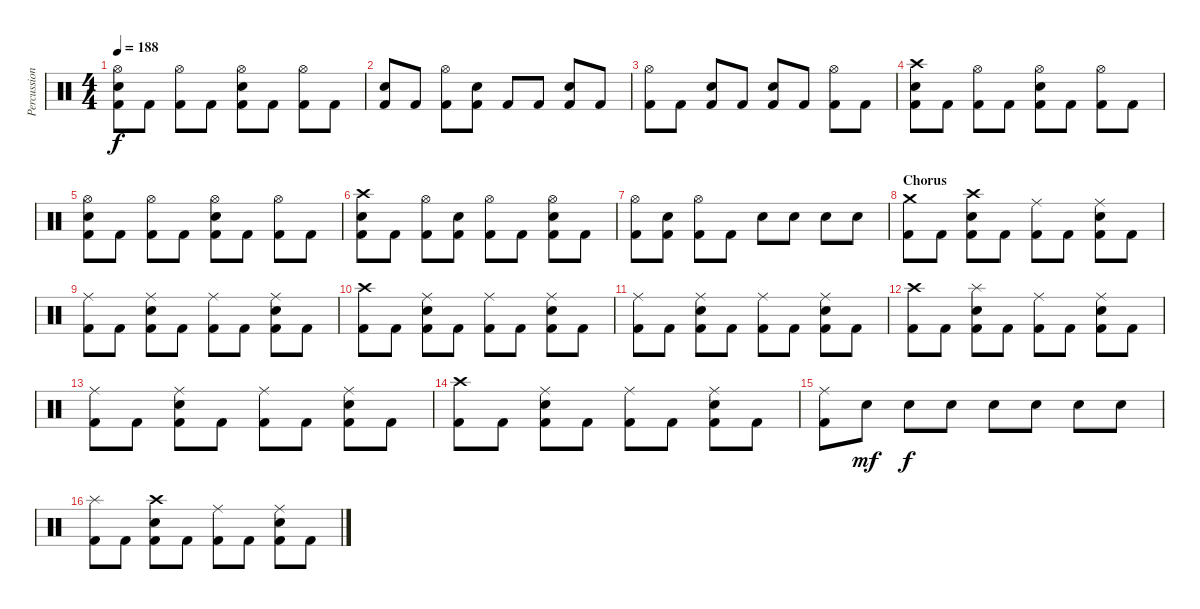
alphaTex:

\track ("Percussions" "Percussion") {instrument percussion}
\staff {score}
\articulation defaults
\ts (4 4)
\tempo 188
\clef neutral
\ks c
("Hi-Hat (open)" "Snare (hit) 2" "Kick (hit) 2").8{dy f} "Kick (hit) 2".8 ("Hi-Hat (open)" "Kick (hit) 2").8 "Kick (hit) 2".8 ("Hi-Hat (open)" "Snare (hit) 2" "Kick (hit) 2").8 "Kick (hit) 2".8 ("Hi-Hat (open)" "Kick (hit) 2").8 "Kick (hit) 2".8 |
("Snare (hit) 2" "Kick (hit) 2").8 "Kick (hit) 2".8 ("Hi-Hat (open)" "Kick (hit) 2").8 ("Snare (hit) 2" "Kick (hit) 2").8 "Kick (hit) 2".8 "Kick (hit) 2".8 ("Snare (hit) 2" "Kick (hit) 2").8 "Kick (hit) 2".8 |
("Hi-Hat (open)" "Kick (hit) 2").8 "Kick (hit) 2".8 ("Snare (hit) 2" "Kick (hit) 2").8 "Kick (hit) 2".8 ("Snare (hit) 2" "Kick (hit) 2").8 "Kick (hit) 2".8 ("Hi-Hat (open)" "Kick (hit) 2").8 "Kick (hit) 2".8 |
("Crash high (hit)" "Snare (hit) 2" "Kick (hit) 2").8 "Kick (hit) 2".8 ("Hi-Hat (open)" "Kick (hit) 2").8 "Kick (hit) 2".8 ("Hi-Hat (open)" "Snare (hit) 2" "Kick (hit) 2").8 "Kick (hit) 2".8 ("Hi-Hat (open)" "Kick (hit) 2").8 "Kick (hit) 2".8 |
("Hi-Hat (open)" "Snare (hit) 2" "Kick (hit) 2").8 "Kick (hit) 2".8 ("Hi-Hat (open)" "Kick (hit) 2").8 "Kick (hit) 2".8 ("Hi-Hat (open)" "Snare (hit) 2" "Kick (hit) 2").8 "Kick (hit) 2".8 ("Hi-Hat (open)" "Kick (hit) 2").8 "Kick (hit) 2".8 |
("Crash high (hit)" "Snare (hit) 2" "Kick (hit) 2").8 "Kick (hit) 2".8 ("Hi-Hat (open)" "Kick (hit) 2").8 ("Snare (hit) 2" "Kick (hit) 2").8 ("Hi-Hat (open)" "Kick (hit) 2").8 "Kick (hit) 2".8 ("Hi-Hat (open)" "Snare (hit) 2" "Kick (hit) 2").8 "Kick (hit) 2".8 |
("Hi-Hat (open)" "Kick (hit) 2").8 ("Snare (hit) 2" "Kick (hit) 2").8 ("Hi-Hat (open)" "Kick (hit) 2").8 "Kick (hit) 2".8 "Snare (hit) 2".8 "Snare (hit) 2".8 "Snare (hit) 2".8 "Snare (hit) 2".8 |
\section ("" "Chorus")
("Crash medium (hit)" "Kick (hit) 2").8 "Kick (hit) 2".8 ("Crash high (hit)" "Snare (hit) 2" "Kick (hit) 2").8 "Kick (hit) 2".8 ("Ride (middle)" "Kick (hit) 2").8 "Kick (hit) 2".8 ("Ride (middle)" "Snare (hit) 2" "Kick (hit) 2").8 "Kick (hit) 2".8 |
("Ride (middle)" "Kick (hit) 2").8 "Kick (hit) 2".8 ("Ride (middle)" "Snare (hit) 2" "Kick (hit) 2").8 "Kick (hit) 2".8 ("Ride (middle)" "Kick (hit) 2").8 "Kick (hit) 2".8 ("Ride (middle)" "Snare (hit) 2" "Kick (hit) 2").8 "Kick (hit) 2".8 |
("Crash high (hit)" "Kick (hit) 2").8 "Kick (hit) 2".8 ("Ride (middle)" "Snare (hit) 2" "Kick (hit) 2").8 "Kick (hit) 2".8 ("Ride (middle)" "Kick (hit) 2").8 "Kick (hit) 2".8 ("Ride (middle)" "Snare (hit) 2" "Kick (hit) 2").8 "Kick (hit) 2".8 |
("Ride (middle)" "Kick (hit) 2").8 "Kick (hit) 2".8 ("Ride (middle)" "Snare (hit) 2" "Kick (hit) 2").8 "Kick (hit) 2".8 ("Ride (middle)" "Kick (hit) 2").8 "Kick (hit) 2".8 ("Ride (middle)" "Snare (hit) 2" "Kick (hit) 2").8 "Kick (hit) 2".8 |
("Crash high (hit)" "Kick (hit) 2").8 "Kick (hit) 2".8 ("Splash (hit)" "Snare (hit) 2" "Kick (hit) 2").8 "Kick (hit) 2".8 ("Ride (middle)" "Kick (hit) 2").8 "Kick (hit) 2".8 ("Ride (middle)" "Snare (hit) 2" "Kick (hit) 2").8 "Kick (hit) 2".8 |
("Ride (middle)" "Kick (hit) 2").8 "Kick (hit) 2".8 ("Ride (middle)" "Snare (hit) 2" "Kick (hit) 2").8 "Kick (hit) 2".8 ("Ride (middle)" "Kick (hit) 2").8 "Kick (hit) 2".8 ("Ride (middle)" "Snare (hit) 2" "Kick (hit) 2").8 "Kick (hit) 2".8 |
("Crash high (hit)" "Kick (hit) 2").8 "Kick (hit) 2".8 ("Ride (middle)" "Snare (hit) 2" "Kick (hit) 2").8 "Kick (hit) 2".8 ("Ride (middle)" "Kick (hit) 2").8 "Kick (hit) 2".8 ("Ride (middle)" "Snare (hit) 2" "Kick (hit) 2").8 "Kick (hit) 2".8 |
("Ride (middle)" "Kick (hit) 2").8 "Snare (hit) 2".8{dy mf} "Snare (hit) 2".8{dy f} "Snare (hit) 2".8 "Snare (hit) 2".8 "Snare (hit) 2".8 "Snare (hit) 2".8 "Snare (hit) 2".8 |
("Splash (hit)" "Kick (hit) 2").8 "Kick (hit) 2".8 ("Crash high (hit)" "Snare (hit) 2" "Kick (hit) 2").8 "Kick (hit) 2".8 ("Ride (middle)" "Kick (hit) 2").8 "Kick (hit) 2".8 ("Ride (middle)" "Snare (hit) 2" "Kick (hit) 2").8 "Kick (hit) 2".8
